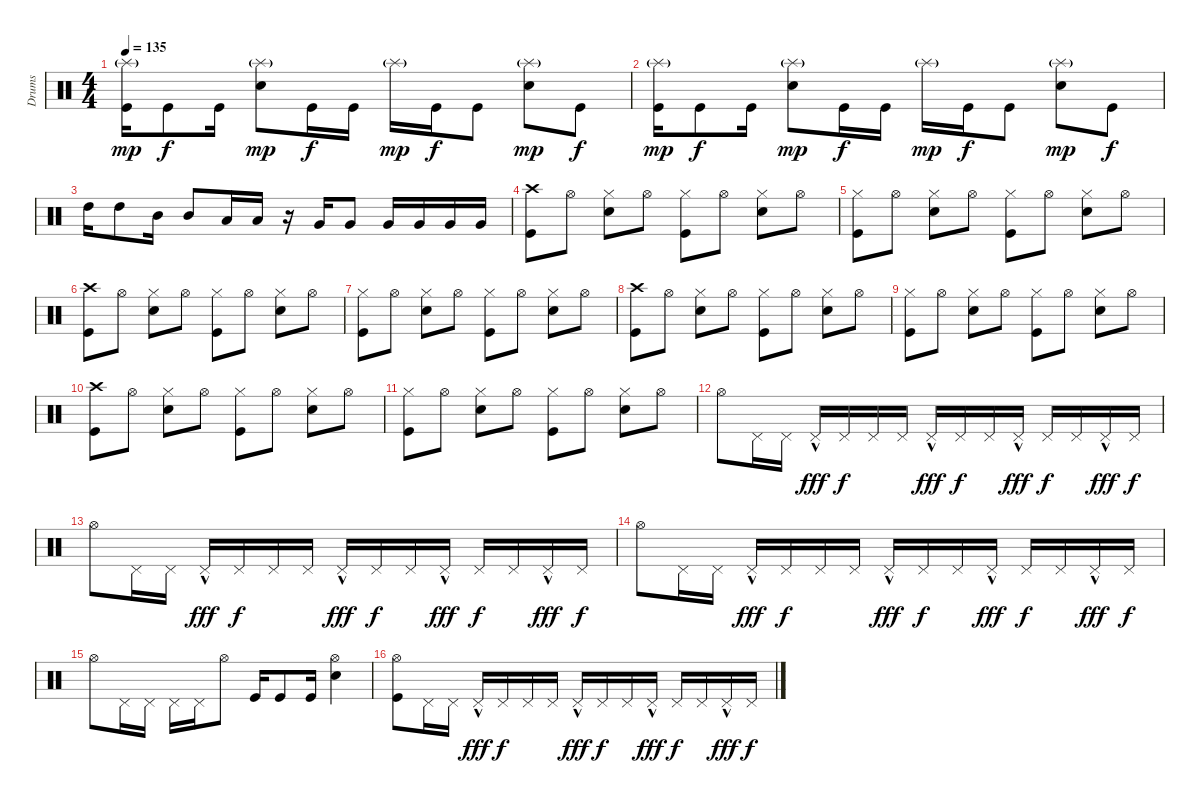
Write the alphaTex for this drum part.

\track ("Drums" "Drums") {instrument percussion}
\staff {score}
\articulation defaults
\ts (4 4)
\tempo 135
\clef neutral
\ks c
("Splash (hit)"{g} "Kick (hit)").16{dy mp} "Kick (hit)".8{dy f} "Kick (hit)".16 ("Splash (hit)"{g} "Snare (hit) 2").8{dy mp} "Kick (hit)".16{dy f} "Kick (hit)".16 "Splash (hit)"{g}.16{dy mp} "Kick (hit)".16{dy f} "Kick (hit)".8 ("Splash (hit)"{g} "Snare (hit) 2").8{dy mp} "Kick (hit)".8{dy f} |
("Splash (hit)"{g} "Kick (hit)").16{dy mp} "Kick (hit)".8{dy f} "Kick (hit)".16 ("Splash (hit)"{g} "Snare (hit) 2").8{dy mp} "Kick (hit)".16{dy f} "Kick (hit)".16 "Splash (hit)"{g}.16{dy mp} "Kick (hit)".16{dy f} "Kick (hit)".8 ("Splash (hit)"{g} "Snare (hit) 2").8{dy mp} "Kick (hit)".8{dy f} |
"High Tom (hit)".16 "High Tom (hit)".8 "Mid Tom (hit)".16 "Mid Tom (hit)".8 "Low Tom (hit)".16 "Low Tom (hit)".16 r.16 "Very Low Tom (hit)".16 "Very Low Tom (hit)".8 "Very Low Tom (hit)".16 "Very Low Tom (hit)".16 "Very Low Tom (hit)".16 "Very Low Tom (hit)".16 |
("Crash high (hit)" "Kick (hit)").8 "Hi-Hat (open)".8 ("Hi-Hat (closed)" "Snare (hit) 2").8 "Hi-Hat (open)".8 ("Hi-Hat (closed)" "Kick (hit)").8 "Hi-Hat (open)".8 ("Hi-Hat (closed)" "Snare (hit) 2").8 "Hi-Hat (open)".8 |
("Hi-Hat (closed)" "Kick (hit)").8 "Hi-Hat (open)".8 ("Hi-Hat (closed)" "Snare (hit) 2").8 "Hi-Hat (open)".8 ("Hi-Hat (closed)" "Kick (hit)").8 "Hi-Hat (open)".8 ("Hi-Hat (closed)" "Snare (hit) 2").8 "Hi-Hat (open)".8 |
("Crash high (hit)" "Kick (hit)").8 "Hi-Hat (open)".8 ("Hi-Hat (closed)" "Snare (hit) 2").8 "Hi-Hat (open)".8 ("Hi-Hat (closed)" "Kick (hit)").8 "Hi-Hat (open)".8 ("Hi-Hat (closed)" "Snare (hit) 2").8 "Hi-Hat (open)".8 |
("Hi-Hat (closed)" "Kick (hit)").8 "Hi-Hat (open)".8 ("Hi-Hat (closed)" "Snare (hit) 2").8 "Hi-Hat (open)".8 ("Hi-Hat (closed)" "Kick (hit)").8 "Hi-Hat (open)".8 ("Hi-Hat (closed)" "Snare (hit) 2").8 "Hi-Hat (open)".8 |
("Crash high (hit)" "Kick (hit)").8 "Hi-Hat (open)".8 ("Hi-Hat (closed)" "Snare (hit) 2").8 "Hi-Hat (open)".8 ("Hi-Hat (closed)" "Kick (hit)").8 "Hi-Hat (open)".8 ("Hi-Hat (closed)" "Snare (hit) 2").8 "Hi-Hat (open)".8 |
("Hi-Hat (closed)" "Kick (hit)").8 "Hi-Hat (open)".8 ("Hi-Hat (closed)" "Snare (hit) 2").8 "Hi-Hat (open)".8 ("Hi-Hat (closed)" "Kick (hit)").8 "Hi-Hat (open)".8 ("Hi-Hat (closed)" "Snare (hit) 2").8 "Hi-Hat (open)".8 |
("Crash high (hit)" "Kick (hit)").8 "Hi-Hat (open)".8 ("Hi-Hat (closed)" "Snare (hit) 2").8 "Hi-Hat (open)".8 ("Hi-Hat (closed)" "Kick (hit)").8 "Hi-Hat (open)".8 ("Hi-Hat (closed)" "Snare (hit) 2").8 "Hi-Hat (open)".8 |
("Hi-Hat (closed)" "Kick (hit)").8 "Hi-Hat (open)".8 ("Hi-Hat (closed)" "Snare (hit) 2").8 "Hi-Hat (open)".8 ("Hi-Hat (closed)" "Kick (hit)").8 "Hi-Hat (open)".8 ("Hi-Hat (closed)" "Snare (hit) 2").8 "Hi-Hat (open)".8 |
"Hi-Hat (open)".8 "Pedal Hi-Hat (hit)".16 "Pedal Hi-Hat (hit)".16 "Pedal Hi-Hat (hit)"{hac}.16{dy fff} "Pedal Hi-Hat (hit)".16{dy f} "Pedal Hi-Hat (hit)".16 "Pedal Hi-Hat (hit)".16 "Pedal Hi-Hat (hit)"{hac}.16{dy fff} "Pedal Hi-Hat (hit)".16{dy f} "Pedal Hi-Hat (hit)".16 "Pedal Hi-Hat (hit)"{hac}.16{dy fff} "Pedal Hi-Hat (hit)".16{dy f} "Pedal Hi-Hat (hit)".16 "Pedal Hi-Hat (hit)"{hac}.16{dy fff} "Pedal Hi-Hat (hit)".16{dy f} |
"Hi-Hat (open)".8 "Pedal Hi-Hat (hit)".16 "Pedal Hi-Hat (hit)".16 "Pedal Hi-Hat (hit)"{hac}.16{dy fff} "Pedal Hi-Hat (hit)".16{dy f} "Pedal Hi-Hat (hit)".16 "Pedal Hi-Hat (hit)".16 "Pedal Hi-Hat (hit)"{hac}.16{dy fff} "Pedal Hi-Hat (hit)".16{dy f} "Pedal Hi-Hat (hit)".16 "Pedal Hi-Hat (hit)"{hac}.16{dy fff} "Pedal Hi-Hat (hit)".16{dy f} "Pedal Hi-Hat (hit)".16 "Pedal Hi-Hat (hit)"{hac}.16{dy fff} "Pedal Hi-Hat (hit)".16{dy f} |
"Hi-Hat (open)".8 "Pedal Hi-Hat (hit)".16 "Pedal Hi-Hat (hit)".16 "Pedal Hi-Hat (hit)"{hac}.16{dy fff} "Pedal Hi-Hat (hit)".16{dy f} "Pedal Hi-Hat (hit)".16 "Pedal Hi-Hat (hit)".16 "Pedal Hi-Hat (hit)"{hac}.16{dy fff} "Pedal Hi-Hat (hit)".16{dy f} "Pedal Hi-Hat (hit)".16 "Pedal Hi-Hat (hit)"{hac}.16{dy fff} "Pedal Hi-Hat (hit)".16{dy f} "Pedal Hi-Hat (hit)".16 "Pedal Hi-Hat (hit)"{hac}.16{dy fff} "Pedal Hi-Hat (hit)".16{dy f} |
"Hi-Hat (open)".8 "Pedal Hi-Hat (hit)".16 "Pedal Hi-Hat (hit)".16 "Pedal Hi-Hat (hit)".16 "Pedal Hi-Hat (hit)".16 "Hi-Hat (open)".8 "Kick (hit)".16 "Kick (hit)".8 "Kick (hit)".16 ("Hi-Hat (open)" "Snare (hit) 2").4 |
("Hi-Hat (open)" "Kick (hit)").8 "Pedal Hi-Hat (hit)".16 "Pedal Hi-Hat (hit)".16 "Pedal Hi-Hat (hit)"{hac}.16{dy fff} "Pedal Hi-Hat (hit)".16{dy f} "Pedal Hi-Hat (hit)".16 "Pedal Hi-Hat (hit)".16 "Pedal Hi-Hat (hit)"{hac}.16{dy fff} "Pedal Hi-Hat (hit)".16{dy f} "Pedal Hi-Hat (hit)".16 "Pedal Hi-Hat (hit)"{hac}.16{dy fff} "Pedal Hi-Hat (hit)".16{dy f} "Pedal Hi-Hat (hit)".16 "Pedal Hi-Hat (hit)"{hac}.16{dy fff} "Pedal Hi-Hat (hit)".16{dy f}
